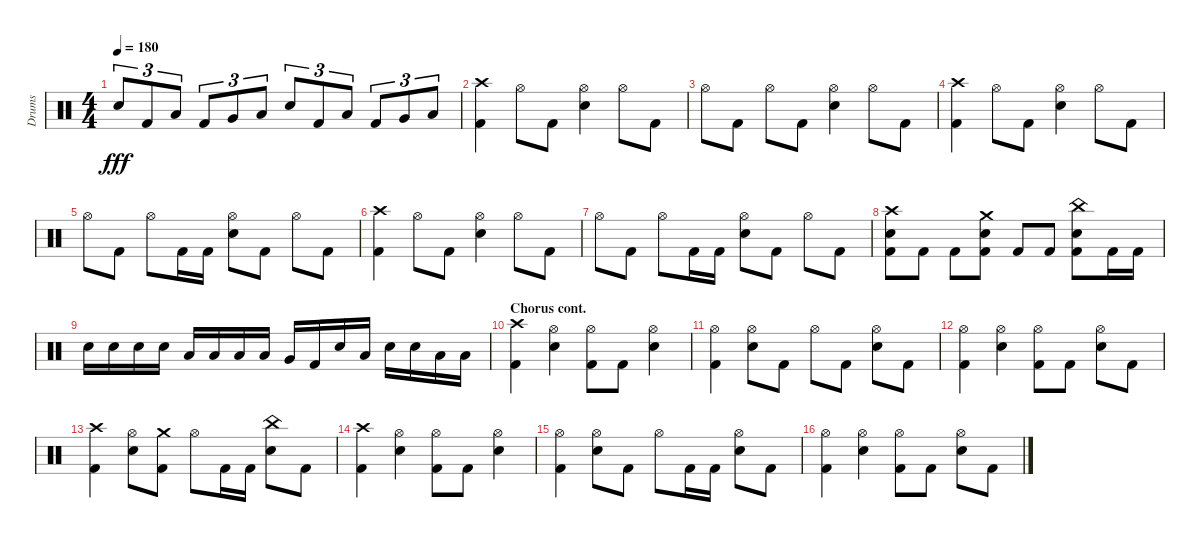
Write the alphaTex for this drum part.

\track ("Drums" "Drums") {instrument percussion}
\staff {score}
\articulation defaults
\ts (4 4)
\tempo 180
\clef neutral
\ks aminor "Snare (hit) 2".8{tu (3 2) dy fff} "Kick (hit) 2".8{tu (3 2)} "Low Tom (hit)".8{tu (3 2)} "Kick (hit) 2".8{tu (3 2)} "Very Low Tom (hit)".8{tu (3 2)} "Low Floor Tom (hit)".8{tu (3 2)} "Snare (hit) 2".8{tu (3 2)} "Kick (hit) 2".8{tu (3 2)} "Low Tom (hit)".8{tu (3 2)} "Kick (hit) 2".8{tu (3 2)} "Very Low Tom (hit)".8{tu (3 2)} "Low Floor Tom (hit)".8{tu (3 2)}
|
("Crash high (hit)" "Kick (hit) 2").4 "Hi-Hat (open)".8 "Kick (hit) 2".8 ("Hi-Hat (open)" "Snare (hit) 2").4 "Hi-Hat (open)".8 "Kick (hit) 2".8 |
"Hi-Hat (open)".8 "Kick (hit) 2".8 "Hi-Hat (open)".8 "Kick (hit) 2".8 ("Snare (hit) 2" "Hi-Hat (open)").4 "Hi-Hat (open)".8 "Kick (hit) 2".8 |
("Crash high (hit)" "Kick (hit) 2").4 "Hi-Hat (open)".8 "Kick (hit) 2".8 ("Snare (hit) 2" "Hi-Hat (open)").4 "Hi-Hat (open)".8 "Kick (hit) 2".8 |
"Hi-Hat (open)".8 "Kick (hit) 2".8 "Hi-Hat (open)".8 "Kick (hit) 2".16 "Kick (hit) 2".16 ("Snare (hit) 2" "Hi-Hat (open)").8 "Kick (hit) 2".8 "Hi-Hat (open)".8 "Kick (hit) 2".8 |
("Kick (hit) 2" "Crash high (hit)").4 "Hi-Hat (open)".8 "Kick (hit) 2".8 ("Hi-Hat (open)" "Snare (hit) 2").4 "Hi-Hat (open)".8 "Kick (hit) 2".8 |
"Hi-Hat (open)".8 "Kick (hit) 2".8 "Hi-Hat (open)".8 "Kick (hit) 2".16 "Kick (hit) 2".16 ("Hi-Hat (open)" "Snare (hit) 2").8 "Kick (hit) 2".8 "Hi-Hat (open)".8 "Kick (hit) 2".8 |
("Crash high (hit)" "Kick (hit) 2" "Snare (hit) 2").8 "Kick (hit) 2".8 "Kick (hit) 2".8 ("Kick (hit) 2" "Snare (hit) 2" "Crash medium (hit)").8 "Kick (hit) 2".8 "Kick (hit) 2".8 ("Snare (hit) 2" "China (hit)" "Kick (hit) 2").8 "Kick (hit) 2".16 "Kick (hit) 2".16 |
"Snare (hit) 2".16 "Snare (hit) 2".16 "Snare (hit) 2".16 "Snare (hit) 2".16 "Low Tom (hit)".16 "Low Tom (hit)".16 "Low Tom (hit)".16 "Low Tom (hit)".16 "Very Low Tom (hit)".16 "Kick (hit) 2".16 "Snare (hit) 2".16 "Low Floor Tom (hit)".16 "Snare (hit) 2".16 "Snare (hit) 2".16 "Low Floor Tom (hit)".16 "Low Floor Tom (hit)".16 |
\section ("" "Chorus cont.")
("Kick (hit) 2" "Crash high (hit)").4 ("Hi-Hat (open)" "Snare (hit) 2").4 ("Kick (hit) 2" "Hi-Hat (open)").8 "Kick (hit) 2".8 ("Snare (hit) 2" "Hi-Hat (open)").4 |
("Kick (hit) 2" "Hi-Hat (open)").4 ("Hi-Hat (open)" "Snare (hit) 2").8 "Kick (hit) 2".8 "Hi-Hat (open)".8 "Kick (hit) 2".8 ("Snare (hit) 2" "Hi-Hat (open)").8 "Kick (hit) 2".8 |
("Kick (hit) 2" "Hi-Hat (open)").4 ("Hi-Hat (open)" "Snare (hit) 2").4 ("Hi-Hat (open)" "Kick (hit) 2").8 "Kick (hit) 2".8 ("Hi-Hat (open)" "Snare (hit) 2").8 "Kick (hit) 2".8 |
("Kick (hit) 2" "Crash high (hit)").4 ("Hi-Hat (open)" "Snare (hit) 2").8 ("Crash medium (hit)" "Kick (hit) 2").8 "Hi-Hat (open)".8 "Kick (hit) 2".16 "Kick (hit) 2".16 ("Snare (hit) 2" "China (hit)").8 "Kick (hit) 2".8 |
("Crash high (hit)" "Kick (hit) 2").4 ("Hi-Hat (open)" "Snare (hit) 2").4 ("Kick (hit) 2" "Hi-Hat (open)").8 "Kick (hit) 2".8 ("Hi-Hat (open)" "Snare (hit) 2").4 |
("Hi-Hat (open)" "Kick (hit) 2").4 ("Snare (hit) 2" "Hi-Hat (open)").8 "Kick (hit) 2".8 "Hi-Hat (open)".8 "Kick (hit) 2".16 "Kick (hit) 2".16 ("Snare (hit) 2" "Hi-Hat (open)").8 "Kick (hit) 2".8 |
("Hi-Hat (open)" "Kick (hit) 2").4 ("Snare (hit) 2" "Hi-Hat (open)").4 ("Kick (hit) 2" "Hi-Hat (open)").8 "Kick (hit) 2".8 ("Snare (hit) 2" "Hi-Hat (open)").8 "Kick (hit) 2".8
